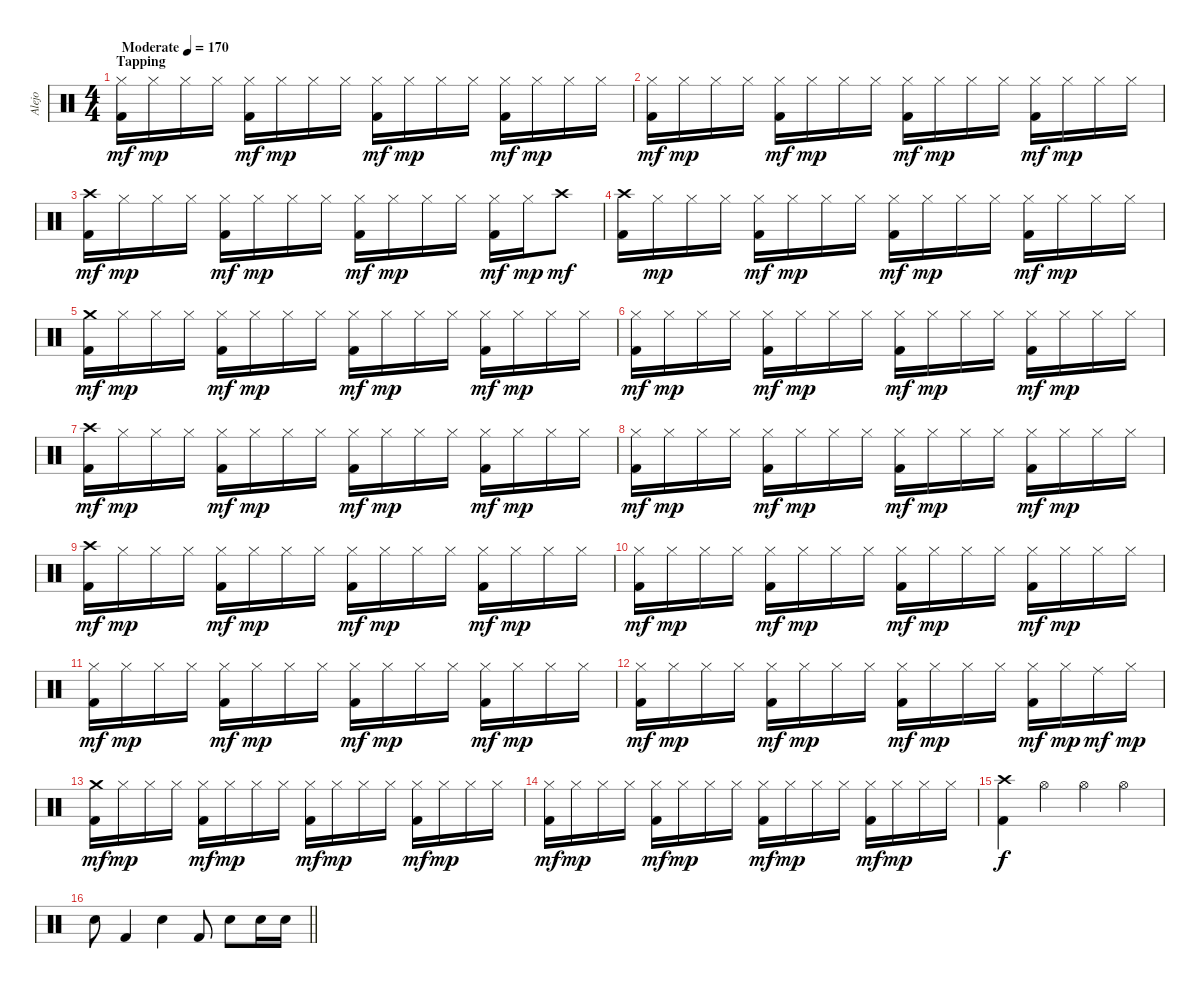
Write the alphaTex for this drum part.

\track ("Alejo" "Alejo") {instrument percussion}
\staff {score}
\articulation defaults
\ts (4 4)
\section ("" "Tapping")
\tempo (170 "Moderate")
\clef neutral
\ks c
("Hi-Hat (closed)" "Kick (hit) 2").16{dy mf} "Hi-Hat (closed)".16{dy mp} "Hi-Hat (closed)".16 "Hi-Hat (closed)".16 ("Hi-Hat (closed)" "Kick (hit) 2").16{dy mf} "Hi-Hat (closed)".16{dy mp} "Hi-Hat (closed)".16 "Hi-Hat (closed)".16 ("Hi-Hat (closed)" "Kick (hit) 2").16{dy mf} "Hi-Hat (closed)".16{dy mp} "Hi-Hat (closed)".16 "Hi-Hat (closed)".16 ("Hi-Hat (closed)" "Kick (hit) 2").16{dy mf} "Hi-Hat (closed)".16{dy mp} "Hi-Hat (closed)".16 "Hi-Hat (closed)".16 |
("Hi-Hat (closed)" "Kick (hit) 2").16{dy mf} "Hi-Hat (closed)".16{dy mp} "Hi-Hat (closed)".16 "Hi-Hat (closed)".16 ("Hi-Hat (closed)" "Kick (hit) 2").16{dy mf} "Hi-Hat (closed)".16{dy mp} "Hi-Hat (closed)".16 "Hi-Hat (closed)".16 ("Hi-Hat (closed)" "Kick (hit) 2").16{dy mf} "Hi-Hat (closed)".16{dy mp} "Hi-Hat (closed)".16 "Hi-Hat (closed)".16 ("Hi-Hat (closed)" "Kick (hit) 2").16{dy mf} "Hi-Hat (closed)".16{dy mp} "Hi-Hat (closed)".16 "Hi-Hat (closed)".16 |
("Crash high (hit)" "Kick (hit) 2").16{dy mf} "Hi-Hat (closed)".16{dy mp} "Hi-Hat (closed)".16 "Hi-Hat (closed)".16 ("Hi-Hat (closed)" "Kick (hit) 2").16{dy mf} "Hi-Hat (closed)".16{dy mp} "Hi-Hat (closed)".16 "Hi-Hat (closed)".16 ("Hi-Hat (closed)" "Kick (hit) 2").16{dy mf} "Hi-Hat (closed)".16{dy mp} "Hi-Hat (closed)".16 "Hi-Hat (closed)".16 ("Hi-Hat (closed)" "Kick (hit) 2").16{dy mf} "Hi-Hat (closed)".16{dy mp} "Crash high (hit)".8{dy mf} |
("Crash high (hit)" "Kick (hit) 2").16 "Hi-Hat (closed)".16{dy mp} "Hi-Hat (closed)".16 "Hi-Hat (closed)".16 ("Hi-Hat (closed)" "Kick (hit) 2").16{dy mf} "Hi-Hat (closed)".16{dy mp} "Hi-Hat (closed)".16 "Hi-Hat (closed)".16 ("Hi-Hat (closed)" "Kick (hit) 2").16{dy mf} "Hi-Hat (closed)".16{dy mp} "Hi-Hat (closed)".16 "Hi-Hat (closed)".16 ("Hi-Hat (closed)" "Kick (hit) 2").16{dy mf} "Hi-Hat (closed)".16{dy mp} "Hi-Hat (closed)".16 "Hi-Hat (closed)".16 |
("Crash medium (hit)" "Kick (hit) 2").16{dy mf} "Hi-Hat (closed)".16{dy mp} "Hi-Hat (closed)".16 "Hi-Hat (closed)".16 ("Hi-Hat (closed)" "Kick (hit) 2").16{dy mf} "Hi-Hat (closed)".16{dy mp} "Hi-Hat (closed)".16 "Hi-Hat (closed)".16 ("Hi-Hat (closed)" "Kick (hit) 2").16{dy mf} "Hi-Hat (closed)".16{dy mp} "Hi-Hat (closed)".16 "Hi-Hat (closed)".16 ("Hi-Hat (closed)" "Kick (hit) 2").16{dy mf} "Hi-Hat (closed)".16{dy mp} "Hi-Hat (closed)".16 "Hi-Hat (closed)".16 |
("Hi-Hat (closed)" "Kick (hit) 2").16{dy mf} "Hi-Hat (closed)".16{dy mp} "Hi-Hat (closed)".16 "Hi-Hat (closed)".16 ("Hi-Hat (closed)" "Kick (hit) 2").16{dy mf} "Hi-Hat (closed)".16{dy mp} "Hi-Hat (closed)".16 "Hi-Hat (closed)".16 ("Hi-Hat (closed)" "Kick (hit) 2").16{dy mf} "Hi-Hat (closed)".16{dy mp} "Hi-Hat (closed)".16 "Hi-Hat (closed)".16 ("Hi-Hat (closed)" "Kick (hit) 2").16{dy mf} "Hi-Hat (closed)".16{dy mp} "Hi-Hat (closed)".16 "Hi-Hat (closed)".16 |
("Crash high (hit)" "Kick (hit) 2").16{dy mf} "Hi-Hat (closed)".16{dy mp} "Hi-Hat (closed)".16 "Hi-Hat (closed)".16 ("Hi-Hat (closed)" "Kick (hit) 2").16{dy mf} "Hi-Hat (closed)".16{dy mp} "Hi-Hat (closed)".16 "Hi-Hat (closed)".16 ("Hi-Hat (closed)" "Kick (hit) 2").16{dy mf} "Hi-Hat (closed)".16{dy mp} "Hi-Hat (closed)".16 "Hi-Hat (closed)".16 ("Hi-Hat (closed)" "Kick (hit) 2").16{dy mf} "Hi-Hat (closed)".16{dy mp} "Hi-Hat (closed)".16 "Hi-Hat (closed)".16 |
("Hi-Hat (closed)" "Kick (hit) 2").16{dy mf} "Hi-Hat (closed)".16{dy mp} "Hi-Hat (closed)".16 "Hi-Hat (closed)".16 ("Hi-Hat (closed)" "Kick (hit) 2").16{dy mf} "Hi-Hat (closed)".16{dy mp} "Hi-Hat (closed)".16 "Hi-Hat (closed)".16 ("Hi-Hat (closed)" "Kick (hit) 2").16{dy mf} "Hi-Hat (closed)".16{dy mp} "Hi-Hat (closed)".16 "Hi-Hat (closed)".16 ("Hi-Hat (closed)" "Kick (hit) 2").16{dy mf} "Hi-Hat (closed)".16{dy mp} "Hi-Hat (closed)".16 "Hi-Hat (closed)".16 |
("Crash high (hit)" "Kick (hit) 2").16{dy mf} "Hi-Hat (closed)".16{dy mp} "Hi-Hat (closed)".16 "Hi-Hat (closed)".16 ("Hi-Hat (closed)" "Kick (hit) 2").16{dy mf} "Hi-Hat (closed)".16{dy mp} "Hi-Hat (closed)".16 "Hi-Hat (closed)".16 ("Hi-Hat (closed)" "Kick (hit) 2").16{dy mf} "Hi-Hat (closed)".16{dy mp} "Hi-Hat (closed)".16 "Hi-Hat (closed)".16 ("Hi-Hat (closed)" "Kick (hit) 2").16{dy mf} "Hi-Hat (closed)".16{dy mp} "Hi-Hat (closed)".16 "Hi-Hat (closed)".16 |
("Hi-Hat (closed)" "Kick (hit) 2").16{dy mf} "Hi-Hat (closed)".16{dy mp} "Hi-Hat (closed)".16 "Hi-Hat (closed)".16 ("Hi-Hat (closed)" "Kick (hit) 2").16{dy mf} "Hi-Hat (closed)".16{dy mp} "Hi-Hat (closed)".16 "Hi-Hat (closed)".16 ("Hi-Hat (closed)" "Kick (hit) 2").16{dy mf} "Hi-Hat (closed)".16{dy mp} "Hi-Hat (closed)".16 "Hi-Hat (closed)".16 ("Hi-Hat (closed)" "Kick (hit) 2").16{dy mf} "Hi-Hat (closed)".16{dy mp} "Hi-Hat (closed)".16 "Hi-Hat (closed)".16 |
("Hi-Hat (closed)" "Kick (hit) 2").16{dy mf} "Hi-Hat (closed)".16{dy mp} "Hi-Hat (closed)".16 "Hi-Hat (closed)".16 ("Hi-Hat (closed)" "Kick (hit) 2").16{dy mf} "Hi-Hat (closed)".16{dy mp} "Hi-Hat (closed)".16 "Hi-Hat (closed)".16 ("Hi-Hat (closed)" "Kick (hit) 2").16{dy mf} "Hi-Hat (closed)".16{dy mp} "Hi-Hat (closed)".16 "Hi-Hat (closed)".16 ("Hi-Hat (closed)" "Kick (hit) 2").16{dy mf} "Hi-Hat (closed)".16{dy mp} "Hi-Hat (closed)".16 "Hi-Hat (closed)".16 |
("Hi-Hat (closed)" "Kick (hit) 2").16{dy mf} "Hi-Hat (closed)".16{dy mp} "Hi-Hat (closed)".16 "Hi-Hat (closed)".16 ("Hi-Hat (closed)" "Kick (hit) 2").16{dy mf} "Hi-Hat (closed)".16{dy mp} "Hi-Hat (closed)".16 "Hi-Hat (closed)".16 ("Hi-Hat (closed)" "Kick (hit) 2").16{dy mf} "Hi-Hat (closed)".16{dy mp} "Hi-Hat (closed)".16 "Hi-Hat (closed)".16 ("Hi-Hat (closed)" "Kick (hit) 2").16{dy mf} "Hi-Hat (closed)".16{dy mp} "Ride (middle)".16{dy mf} "Hi-Hat (closed)".16{dy mp} |
("Crash medium (hit)" "Kick (hit) 2").16{dy mf} "Hi-Hat (closed)".16{dy mp} "Hi-Hat (closed)".16 "Hi-Hat (closed)".16 ("Hi-Hat (closed)" "Kick (hit) 2").16{dy mf} "Hi-Hat (closed)".16{dy mp} "Hi-Hat (closed)".16 "Hi-Hat (closed)".16 ("Hi-Hat (closed)" "Kick (hit) 2").16{dy mf} "Hi-Hat (closed)".16{dy mp} "Hi-Hat (closed)".16 "Hi-Hat (closed)".16 ("Hi-Hat (closed)" "Kick (hit) 2").16{dy mf} "Hi-Hat (closed)".16{dy mp} "Hi-Hat (closed)".16 "Hi-Hat (closed)".16 |
("Hi-Hat (closed)" "Kick (hit) 2").16{dy mf} "Hi-Hat (closed)".16{dy mp} "Hi-Hat (closed)".16 "Hi-Hat (closed)".16 ("Hi-Hat (closed)" "Kick (hit) 2").16{dy mf} "Hi-Hat (closed)".16{dy mp} "Hi-Hat (closed)".16 "Hi-Hat (closed)".16 ("Hi-Hat (closed)" "Kick (hit) 2").16{dy mf} "Hi-Hat (closed)".16{dy mp} "Hi-Hat (closed)".16 "Hi-Hat (closed)".16 ("Hi-Hat (closed)" "Kick (hit) 2").16{dy mf} "Hi-Hat (closed)".16{dy mp} "Hi-Hat (closed)".16 "Hi-Hat (closed)".16 |
("Kick (hit) 2" "Crash high (hit)").4{dy f} "Hi-Hat (open)".4 "Hi-Hat (open)".4 "Hi-Hat (open)".4 |
\barLineRight lightlight "Snare (hit) 2".8 "Kick (hit) 2".4 "Snare (hit) 2".4 "Kick (hit) 2".8 "Snare (hit) 2".8 "Snare (hit) 2".16 "Snare (hit) 2".16
